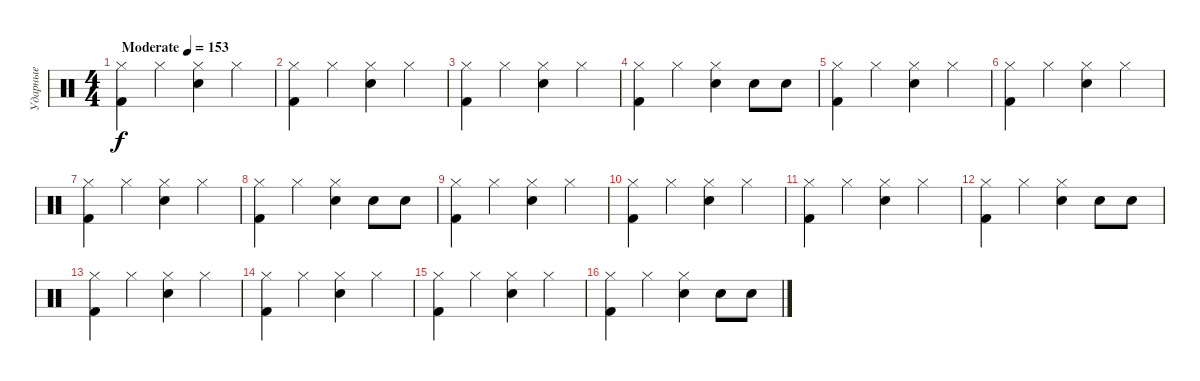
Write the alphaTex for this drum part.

\track ("Ударные" "Ударные") {instrument percussion}
\staff {score}
\articulation defaults
\ts (4 4)
\tempo (153 "Moderate")
\clef neutral
\ks c
("Hi-Hat (closed)" "Kick (hit) 2").4{dy f} "Hi-Hat (closed)".4 ("Hi-Hat (closed)" "Snare (hit) 2").4 "Hi-Hat (closed)".4 |
("Hi-Hat (closed)" "Kick (hit) 2").4 "Hi-Hat (closed)".4 ("Hi-Hat (closed)" "Snare (hit) 2").4 "Hi-Hat (closed)".4 |
("Hi-Hat (closed)" "Kick (hit) 2").4 "Hi-Hat (closed)".4 ("Hi-Hat (closed)" "Snare (hit) 2").4 "Hi-Hat (closed)".4 |
("Hi-Hat (closed)" "Kick (hit) 2").4 "Hi-Hat (closed)".4 ("Hi-Hat (closed)" "Snare (hit) 2").4 "Snare (hit) 2".8 "Snare (hit) 2".8 |
("Hi-Hat (closed)" "Kick (hit) 2").4 "Hi-Hat (closed)".4 ("Hi-Hat (closed)" "Snare (hit) 2").4 "Hi-Hat (closed)".4 |
("Hi-Hat (closed)" "Kick (hit) 2").4 "Hi-Hat (closed)".4 ("Hi-Hat (closed)" "Snare (hit) 2").4 "Hi-Hat (closed)".4 |
("Hi-Hat (closed)" "Kick (hit) 2").4 "Hi-Hat (closed)".4 ("Hi-Hat (closed)" "Snare (hit) 2").4 "Hi-Hat (closed)".4 |
("Hi-Hat (closed)" "Kick (hit) 2").4 "Hi-Hat (closed)".4 ("Hi-Hat (closed)" "Snare (hit) 2").4 "Snare (hit) 2".8 "Snare (hit) 2".8 |
("Hi-Hat (closed)" "Kick (hit) 2").4 "Hi-Hat (closed)".4 ("Hi-Hat (closed)" "Snare (hit) 2").4 "Hi-Hat (closed)".4 |
("Hi-Hat (closed)" "Kick (hit) 2").4 "Hi-Hat (closed)".4 ("Hi-Hat (closed)" "Snare (hit) 2").4 "Hi-Hat (closed)".4 |
("Hi-Hat (closed)" "Kick (hit) 2").4 "Hi-Hat (closed)".4 ("Hi-Hat (closed)" "Snare (hit) 2").4 "Hi-Hat (closed)".4 |
("Hi-Hat (closed)" "Kick (hit) 2").4 "Hi-Hat (closed)".4 ("Hi-Hat (closed)" "Snare (hit) 2").4 "Snare (hit) 2".8 "Snare (hit) 2".8 |
("Hi-Hat (closed)" "Kick (hit) 2").4 "Hi-Hat (closed)".4 ("Hi-Hat (closed)" "Snare (hit) 2").4 "Hi-Hat (closed)".4 |
("Hi-Hat (closed)" "Kick (hit) 2").4 "Hi-Hat (closed)".4 ("Hi-Hat (closed)" "Snare (hit) 2").4 "Hi-Hat (closed)".4 |
("Hi-Hat (closed)" "Kick (hit) 2").4 "Hi-Hat (closed)".4 ("Hi-Hat (closed)" "Snare (hit) 2").4 "Hi-Hat (closed)".4 |
("Hi-Hat (closed)" "Kick (hit) 2").4 "Hi-Hat (closed)".4 ("Hi-Hat (closed)" "Snare (hit) 2").4 "Snare (hit) 2".8 "Snare (hit) 2".8
